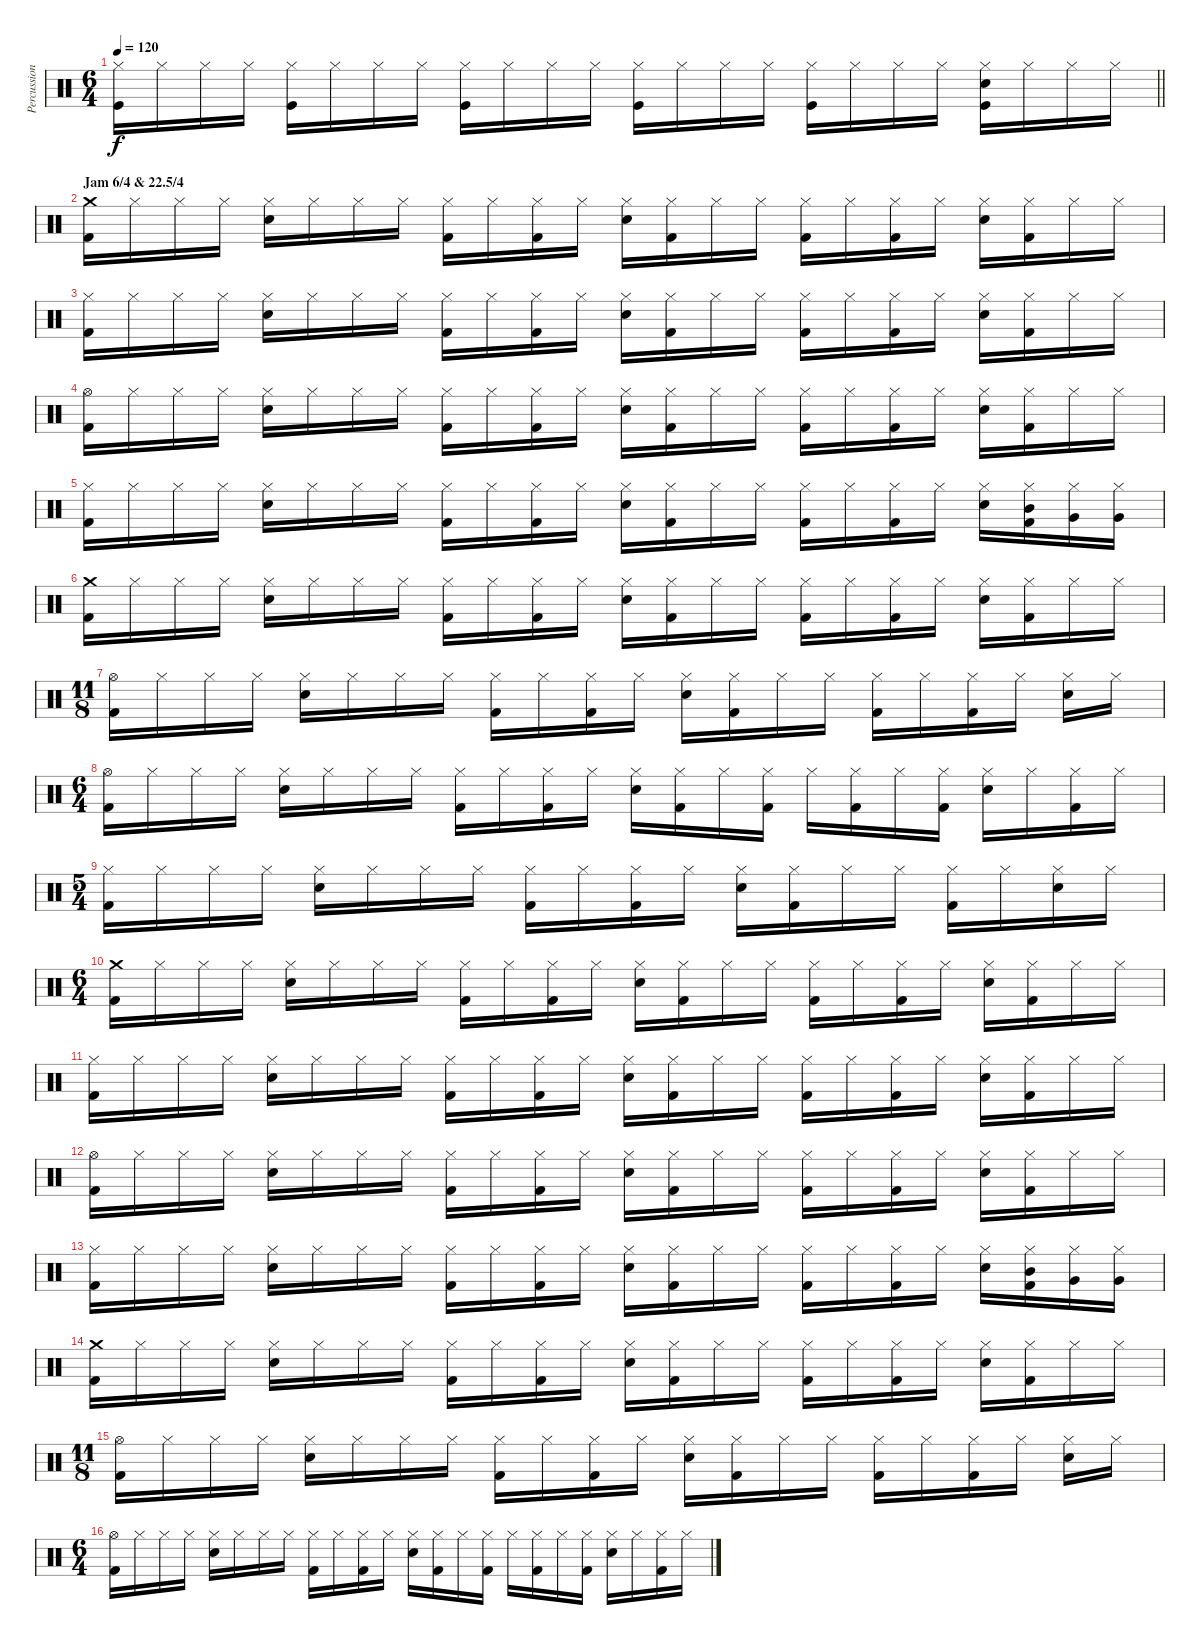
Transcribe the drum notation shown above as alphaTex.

\track ("Percussion" "Percussion") {instrument percussion}
\staff {score}
\articulation defaults
\ts (6 4)
\tempo 120
\clef neutral
\barLineRight lightlight
\ks c
("Hi-Hat (closed)" "Kick (hit)").16{dy f} "Hi-Hat (closed)".16 "Hi-Hat (closed)".16 "Hi-Hat (closed)".16 ("Hi-Hat (closed)" "Kick (hit)").16 "Hi-Hat (closed)".16 "Hi-Hat (closed)".16 "Hi-Hat (closed)".16 ("Hi-Hat (closed)" "Kick (hit)").16 "Hi-Hat (closed)".16 "Hi-Hat (closed)".16 "Hi-Hat (closed)".16 ("Hi-Hat (closed)" "Kick (hit)").16 "Hi-Hat (closed)".16 "Hi-Hat (closed)".16 "Hi-Hat (closed)".16 ("Hi-Hat (closed)" "Kick (hit)").16 "Hi-Hat (closed)".16 "Hi-Hat (closed)".16 "Hi-Hat (closed)".16 ("Hi-Hat (closed)" "Electric Snare (hit)" "Kick (hit)").16 "Hi-Hat (closed)".16 "Hi-Hat (closed)".16 "Hi-Hat (closed)".16 |
\section ("" "Jam 6/4 & 22.5/4")
("Crash medium (hit)" "Kick (hit) 2").16 "Hi-Hat (closed)".16 "Hi-Hat (closed)".16 "Hi-Hat (closed)".16 ("Hi-Hat (closed)" "Electric Snare (hit)").16 "Hi-Hat (closed)".16 "Hi-Hat (closed)".16 "Hi-Hat (closed)".16 ("Hi-Hat (closed)" "Kick (hit) 2").16 "Hi-Hat (closed)".16 ("Hi-Hat (closed)" "Kick (hit) 2").16 "Hi-Hat (closed)".16 ("Hi-Hat (closed)" "Electric Snare (hit)").16 ("Hi-Hat (closed)" "Kick (hit) 2").16 "Hi-Hat (closed)".16 "Hi-Hat (closed)".16 ("Hi-Hat (closed)" "Kick (hit) 2").16 "Hi-Hat (closed)".16 ("Hi-Hat (closed)" "Kick (hit) 2").16 "Hi-Hat (closed)".16 ("Hi-Hat (closed)" "Electric Snare (hit)").16 ("Hi-Hat (closed)" "Kick (hit) 2").16 "Hi-Hat (closed)".16 "Hi-Hat (closed)".16 |
("Hi-Hat (closed)" "Kick (hit) 2").16 "Hi-Hat (closed)".16 "Hi-Hat (closed)".16 "Hi-Hat (closed)".16 ("Hi-Hat (closed)" "Electric Snare (hit)").16 "Hi-Hat (closed)".16 "Hi-Hat (closed)".16 "Hi-Hat (closed)".16 ("Hi-Hat (closed)" "Kick (hit) 2").16 "Hi-Hat (closed)".16 ("Hi-Hat (closed)" "Kick (hit) 2").16 "Hi-Hat (closed)".16 ("Hi-Hat (closed)" "Electric Snare (hit)").16 ("Hi-Hat (closed)" "Kick (hit) 2").16 "Hi-Hat (closed)".16 "Hi-Hat (closed)".16 ("Hi-Hat (closed)" "Kick (hit) 2").16 "Hi-Hat (closed)".16 ("Hi-Hat (closed)" "Kick (hit) 2").16 "Hi-Hat (closed)".16 ("Hi-Hat (closed)" "Electric Snare (hit)").16 ("Hi-Hat (closed)" "Kick (hit) 2").16 "Hi-Hat (closed)".16 "Hi-Hat (closed)".16 |
("Hi-Hat (open)" "Kick (hit) 2").16 "Hi-Hat (closed)".16 "Hi-Hat (closed)".16 "Hi-Hat (closed)".16 ("Hi-Hat (closed)" "Electric Snare (hit)").16 "Hi-Hat (closed)".16 "Hi-Hat (closed)".16 "Hi-Hat (closed)".16 ("Hi-Hat (closed)" "Kick (hit) 2").16 "Hi-Hat (closed)".16 ("Hi-Hat (closed)" "Kick (hit) 2").16 "Hi-Hat (closed)".16 ("Hi-Hat (closed)" "Electric Snare (hit)").16 ("Hi-Hat (closed)" "Kick (hit) 2").16 "Hi-Hat (closed)".16 "Hi-Hat (closed)".16 ("Hi-Hat (closed)" "Kick (hit) 2").16 "Hi-Hat (closed)".16 ("Hi-Hat (closed)" "Kick (hit) 2").16 "Hi-Hat (closed)".16 ("Hi-Hat (closed)" "Electric Snare (hit)").16 ("Hi-Hat (closed)" "Kick (hit) 2").16 "Hi-Hat (closed)".16 "Hi-Hat (closed)".16 |
("Hi-Hat (closed)" "Kick (hit) 2").16 "Hi-Hat (closed)".16 "Hi-Hat (closed)".16 "Hi-Hat (closed)".16 ("Hi-Hat (closed)" "Electric Snare (hit)").16 "Hi-Hat (closed)".16 "Hi-Hat (closed)".16 "Hi-Hat (closed)".16 ("Hi-Hat (closed)" "Kick (hit) 2").16 "Hi-Hat (closed)".16 ("Hi-Hat (closed)" "Kick (hit) 2").16 "Hi-Hat (closed)".16 ("Hi-Hat (closed)" "Electric Snare (hit)").16 ("Hi-Hat (closed)" "Kick (hit) 2").16 "Hi-Hat (closed)".16 "Hi-Hat (closed)".16 ("Hi-Hat (closed)" "Kick (hit) 2").16 "Hi-Hat (closed)".16 ("Hi-Hat (closed)" "Kick (hit) 2").16 "Hi-Hat (closed)".16 ("Hi-Hat (closed)" "Electric Snare (hit)").16 ("Hi-Hat (closed)" "Mid Tom (hit)" "Kick (hit) 2").16 ("Hi-Hat (closed)" "Very Low Tom (hit)").16 ("Hi-Hat (closed)" "Very Low Tom (hit)").16 |
("Crash medium (hit)" "Kick (hit) 2").16 "Hi-Hat (closed)".16 "Hi-Hat (closed)".16 "Hi-Hat (closed)".16 ("Hi-Hat (closed)" "Electric Snare (hit)").16 "Hi-Hat (closed)".16 "Hi-Hat (closed)".16 "Hi-Hat (closed)".16 ("Hi-Hat (closed)" "Kick (hit) 2").16 "Hi-Hat (closed)".16 ("Hi-Hat (closed)" "Kick (hit) 2").16 "Hi-Hat (closed)".16 ("Hi-Hat (closed)" "Electric Snare (hit)").16 ("Hi-Hat (closed)" "Kick (hit) 2").16 "Hi-Hat (closed)".16 "Hi-Hat (closed)".16 ("Hi-Hat (closed)" "Kick (hit) 2").16 "Hi-Hat (closed)".16 ("Hi-Hat (closed)" "Kick (hit) 2").16 "Hi-Hat (closed)".16 ("Hi-Hat (closed)" "Electric Snare (hit)").16 ("Hi-Hat (closed)" "Kick (hit) 2").16 "Hi-Hat (closed)".16 "Hi-Hat (closed)".16 |
\ts (11 8)
("Hi-Hat (open)" "Kick (hit) 2").16 "Hi-Hat (closed)".16 "Hi-Hat (closed)".16 "Hi-Hat (closed)".16 ("Hi-Hat (closed)" "Electric Snare (hit)").16 "Hi-Hat (closed)".16 "Hi-Hat (closed)".16 "Hi-Hat (closed)".16 ("Hi-Hat (closed)" "Kick (hit) 2").16 "Hi-Hat (closed)".16 ("Hi-Hat (closed)" "Kick (hit) 2").16 "Hi-Hat (closed)".16 ("Hi-Hat (closed)" "Electric Snare (hit)").16 ("Hi-Hat (closed)" "Kick (hit) 2").16 "Hi-Hat (closed)".16 "Hi-Hat (closed)".16 ("Hi-Hat (closed)" "Kick (hit) 2").16 "Hi-Hat (closed)".16 ("Hi-Hat (closed)" "Kick (hit) 2").16 "Hi-Hat (closed)".16 ("Hi-Hat (closed)" "Electric Snare (hit)").16 "Hi-Hat (closed)".16 |
\ts (6 4)
("Hi-Hat (open)" "Kick (hit) 2").16 "Hi-Hat (closed)".16 "Hi-Hat (closed)".16 "Hi-Hat (closed)".16 ("Hi-Hat (closed)" "Electric Snare (hit)").16 "Hi-Hat (closed)".16 "Hi-Hat (closed)".16 "Hi-Hat (closed)".16 ("Hi-Hat (closed)" "Kick (hit) 2").16 "Hi-Hat (closed)".16 ("Hi-Hat (closed)" "Kick (hit) 2").16 "Hi-Hat (closed)".16 ("Hi-Hat (closed)" "Electric Snare (hit)").16 ("Hi-Hat (closed)" "Kick (hit) 2").16 "Hi-Hat (closed)".16 ("Hi-Hat (closed)" "Kick (hit) 2").16 "Hi-Hat (closed)".16 ("Hi-Hat (closed)" "Kick (hit) 2").16 "Hi-Hat (closed)".16 ("Hi-Hat (closed)" "Kick (hit) 2").16 ("Hi-Hat (closed)" "Electric Snare (hit)").16 "Hi-Hat (closed)".16 ("Hi-Hat (closed)" "Kick (hit) 2").16 "Hi-Hat (closed)".16 |
\ts (5 4)
("Hi-Hat (closed)" "Kick (hit) 2").16 "Hi-Hat (closed)".16 "Hi-Hat (closed)".16 "Hi-Hat (closed)".16 ("Hi-Hat (closed)" "Electric Snare (hit)").16 "Hi-Hat (closed)".16 "Hi-Hat (closed)".16 "Hi-Hat (closed)".16 ("Hi-Hat (closed)" "Kick (hit) 2").16 "Hi-Hat (closed)".16 ("Hi-Hat (closed)" "Kick (hit) 2").16 "Hi-Hat (closed)".16 ("Hi-Hat (closed)" "Electric Snare (hit)").16 ("Hi-Hat (closed)" "Kick (hit) 2").16 "Hi-Hat (closed)".16 "Hi-Hat (closed)".16 ("Hi-Hat (closed)" "Kick (hit) 2").16 "Hi-Hat (closed)".16 ("Hi-Hat (closed)" "Electric Snare (hit)").16 "Hi-Hat (closed)".16 |
\ts (6 4)
("Crash medium (hit)" "Kick (hit) 2").16 "Hi-Hat (closed)".16 "Hi-Hat (closed)".16 "Hi-Hat (closed)".16 ("Hi-Hat (closed)" "Electric Snare (hit)").16 "Hi-Hat (closed)".16 "Hi-Hat (closed)".16 "Hi-Hat (closed)".16 ("Hi-Hat (closed)" "Kick (hit) 2").16 "Hi-Hat (closed)".16 ("Hi-Hat (closed)" "Kick (hit) 2").16 "Hi-Hat (closed)".16 ("Hi-Hat (closed)" "Electric Snare (hit)").16 ("Hi-Hat (closed)" "Kick (hit) 2").16 "Hi-Hat (closed)".16 "Hi-Hat (closed)".16 ("Hi-Hat (closed)" "Kick (hit) 2").16 "Hi-Hat (closed)".16 ("Hi-Hat (closed)" "Kick (hit) 2").16 "Hi-Hat (closed)".16 ("Hi-Hat (closed)" "Electric Snare (hit)").16 ("Hi-Hat (closed)" "Kick (hit) 2").16 "Hi-Hat (closed)".16 "Hi-Hat (closed)".16 |
("Hi-Hat (closed)" "Kick (hit) 2").16 "Hi-Hat (closed)".16 "Hi-Hat (closed)".16 "Hi-Hat (closed)".16 ("Hi-Hat (closed)" "Electric Snare (hit)").16 "Hi-Hat (closed)".16 "Hi-Hat (closed)".16 "Hi-Hat (closed)".16 ("Hi-Hat (closed)" "Kick (hit) 2").16 "Hi-Hat (closed)".16 ("Hi-Hat (closed)" "Kick (hit) 2").16 "Hi-Hat (closed)".16 ("Hi-Hat (closed)" "Electric Snare (hit)").16 ("Hi-Hat (closed)" "Kick (hit) 2").16 "Hi-Hat (closed)".16 "Hi-Hat (closed)".16 ("Hi-Hat (closed)" "Kick (hit) 2").16 "Hi-Hat (closed)".16 ("Hi-Hat (closed)" "Kick (hit) 2").16 "Hi-Hat (closed)".16 ("Hi-Hat (closed)" "Electric Snare (hit)").16 ("Hi-Hat (closed)" "Kick (hit) 2").16 "Hi-Hat (closed)".16 "Hi-Hat (closed)".16 |
("Hi-Hat (open)" "Kick (hit) 2").16 "Hi-Hat (closed)".16 "Hi-Hat (closed)".16 "Hi-Hat (closed)".16 ("Hi-Hat (closed)" "Electric Snare (hit)").16 "Hi-Hat (closed)".16 "Hi-Hat (closed)".16 "Hi-Hat (closed)".16 ("Hi-Hat (closed)" "Kick (hit) 2").16 "Hi-Hat (closed)".16 ("Hi-Hat (closed)" "Kick (hit) 2").16 "Hi-Hat (closed)".16 ("Hi-Hat (closed)" "Electric Snare (hit)").16 ("Hi-Hat (closed)" "Kick (hit) 2").16 "Hi-Hat (closed)".16 "Hi-Hat (closed)".16 ("Hi-Hat (closed)" "Kick (hit) 2").16 "Hi-Hat (closed)".16 ("Hi-Hat (closed)" "Kick (hit) 2").16 "Hi-Hat (closed)".16 ("Hi-Hat (closed)" "Electric Snare (hit)").16 ("Hi-Hat (closed)" "Kick (hit) 2").16 "Hi-Hat (closed)".16 "Hi-Hat (closed)".16 |
("Hi-Hat (closed)" "Kick (hit) 2").16 "Hi-Hat (closed)".16 "Hi-Hat (closed)".16 "Hi-Hat (closed)".16 ("Hi-Hat (closed)" "Electric Snare (hit)").16 "Hi-Hat (closed)".16 "Hi-Hat (closed)".16 "Hi-Hat (closed)".16 ("Hi-Hat (closed)" "Kick (hit) 2").16 "Hi-Hat (closed)".16 ("Hi-Hat (closed)" "Kick (hit) 2").16 "Hi-Hat (closed)".16 ("Hi-Hat (closed)" "Electric Snare (hit)").16 ("Hi-Hat (closed)" "Kick (hit) 2").16 "Hi-Hat (closed)".16 "Hi-Hat (closed)".16 ("Hi-Hat (closed)" "Kick (hit) 2").16 "Hi-Hat (closed)".16 ("Hi-Hat (closed)" "Kick (hit) 2").16 "Hi-Hat (closed)".16 ("Hi-Hat (closed)" "Electric Snare (hit)").16 ("Hi-Hat (closed)" "Mid Tom (hit)" "Kick (hit) 2").16 ("Hi-Hat (closed)" "Very Low Tom (hit)").16 ("Hi-Hat (closed)" "Very Low Tom (hit)").16 |
("Crash medium (hit)" "Kick (hit) 2").16 "Hi-Hat (closed)".16 "Hi-Hat (closed)".16 "Hi-Hat (closed)".16 ("Hi-Hat (closed)" "Electric Snare (hit)").16 "Hi-Hat (closed)".16 "Hi-Hat (closed)".16 "Hi-Hat (closed)".16 ("Hi-Hat (closed)" "Kick (hit) 2").16 "Hi-Hat (closed)".16 ("Hi-Hat (closed)" "Kick (hit) 2").16 "Hi-Hat (closed)".16 ("Hi-Hat (closed)" "Electric Snare (hit)").16 ("Hi-Hat (closed)" "Kick (hit) 2").16 "Hi-Hat (closed)".16 "Hi-Hat (closed)".16 ("Hi-Hat (closed)" "Kick (hit) 2").16 "Hi-Hat (closed)".16 ("Hi-Hat (closed)" "Kick (hit) 2").16 "Hi-Hat (closed)".16 ("Hi-Hat (closed)" "Electric Snare (hit)").16 ("Hi-Hat (closed)" "Kick (hit) 2").16 "Hi-Hat (closed)".16 "Hi-Hat (closed)".16 |
\ts (11 8)
("Hi-Hat (open)" "Kick (hit) 2").16 "Hi-Hat (closed)".16 "Hi-Hat (closed)".16 "Hi-Hat (closed)".16 ("Hi-Hat (closed)" "Electric Snare (hit)").16 "Hi-Hat (closed)".16 "Hi-Hat (closed)".16 "Hi-Hat (closed)".16 ("Hi-Hat (closed)" "Kick (hit) 2").16 "Hi-Hat (closed)".16 ("Hi-Hat (closed)" "Kick (hit) 2").16 "Hi-Hat (closed)".16 ("Hi-Hat (closed)" "Electric Snare (hit)").16 ("Hi-Hat (closed)" "Kick (hit) 2").16 "Hi-Hat (closed)".16 "Hi-Hat (closed)".16 ("Hi-Hat (closed)" "Kick (hit) 2").16 "Hi-Hat (closed)".16 ("Hi-Hat (closed)" "Kick (hit) 2").16 "Hi-Hat (closed)".16 ("Hi-Hat (closed)" "Electric Snare (hit)").16 "Hi-Hat (closed)".16 |
\ts (6 4)
("Hi-Hat (open)" "Kick (hit) 2").16 "Hi-Hat (closed)".16 "Hi-Hat (closed)".16 "Hi-Hat (closed)".16 ("Hi-Hat (closed)" "Electric Snare (hit)").16 "Hi-Hat (closed)".16 "Hi-Hat (closed)".16 "Hi-Hat (closed)".16 ("Hi-Hat (closed)" "Kick (hit) 2").16 "Hi-Hat (closed)".16 ("Hi-Hat (closed)" "Kick (hit) 2").16 "Hi-Hat (closed)".16 ("Hi-Hat (closed)" "Electric Snare (hit)").16 ("Hi-Hat (closed)" "Kick (hit) 2").16 "Hi-Hat (closed)".16 ("Hi-Hat (closed)" "Kick (hit) 2").16 "Hi-Hat (closed)".16 ("Hi-Hat (closed)" "Kick (hit) 2").16 "Hi-Hat (closed)".16 ("Hi-Hat (closed)" "Kick (hit) 2").16 ("Hi-Hat (closed)" "Electric Snare (hit)").16 "Hi-Hat (closed)".16 ("Hi-Hat (closed)" "Kick (hit) 2").16 "Hi-Hat (closed)".16
